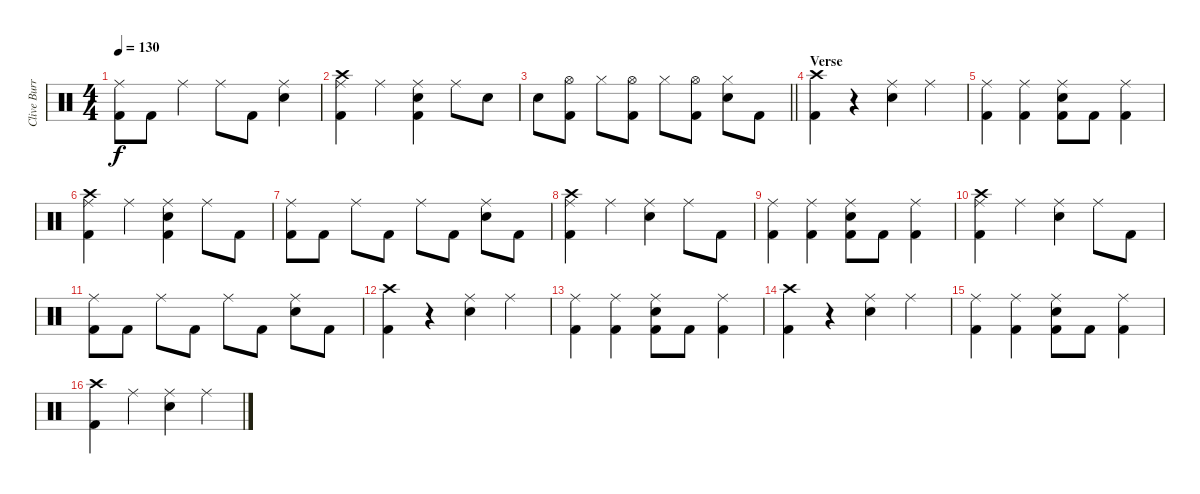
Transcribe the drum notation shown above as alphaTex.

\track ("Clive Burr" "Clive Burr") {instrument percussion}
\staff {score}
\articulation defaults
\ts (4 4)
\tempo 130
\clef neutral
\ks c
("Ride (middle)" "Kick (hit) 2").8{dy f} "Kick (hit) 2".8 "Ride (middle)".4 "Ride (middle)".8 "Kick (hit) 2".8 ("Snare (hit) 2" "Ride (middle)").4 |
("Crash high (hit)" "Ride (middle)" "Kick (hit) 2").4 "Ride (middle)".4 ("Snare (hit) 2" "Ride (middle)" "Kick (hit) 2").4 "Ride (middle)".8 "Snare (hit) 2".8 |
\barLineRight lightlight "Snare (hit) 2".8
("Hi-Hat (open)" "Kick (hit) 2").8 "Hi-Hat (closed)".8 ("Hi-Hat (open)" "Kick (hit) 2").8 "Hi-Hat (closed)".8 ("Hi-Hat (open)" "Kick (hit) 2").8 ("Snare (hit) 2" "Hi-Hat (closed)").8 "Kick (hit) 2".8 |
\section ("" "Verse")
("Crash high (hit)" "Kick (hit) 2").4 r.4 ("Snare (hit) 2" "Ride (middle)").4 "Ride (middle)".4 |
("Ride (middle)" "Kick (hit) 2").4 ("Ride (middle)" "Kick (hit) 2").4 ("Snare (hit) 2" "Ride (middle)" "Kick (hit) 2").8 "Kick (hit) 2".8 ("Ride (middle)" "Kick (hit) 2").4 |
("Crash high (hit)" "Ride (middle)" "Kick (hit) 2").4 "Ride (middle)".4 ("Snare (hit) 2" "Ride (middle)" "Kick (hit) 2").4 "Ride (middle)".8 "Kick (hit) 2".8 |
("Ride (middle)" "Kick (hit) 2").8 "Kick (hit) 2".8 "Ride (middle)".8 "Kick (hit) 2".8 "Ride (middle)".8 "Kick (hit) 2".8 ("Snare (hit) 2" "Ride (middle)").8 "Kick (hit) 2".8 |
("Crash high (hit)" "Ride (middle)" "Kick (hit) 2").4 "Ride (middle)".4 ("Snare (hit) 2" "Ride (middle)").4 "Ride (middle)".8 "Kick (hit) 2".8 |
("Ride (middle)" "Kick (hit) 2").4 ("Ride (middle)" "Kick (hit) 2").4 ("Snare (hit) 2" "Ride (middle)" "Kick (hit) 2").8 "Kick (hit) 2".8 ("Ride (middle)" "Kick (hit) 2").4 |
("Crash high (hit)" "Ride (middle)" "Kick (hit) 2").4 "Ride (middle)".4 ("Snare (hit) 2" "Ride (middle)").4 "Ride (middle)".8 "Kick (hit) 2".8 |
("Ride (middle)" "Kick (hit) 2").8 "Kick (hit) 2".8 "Ride (middle)".8 "Kick (hit) 2".8 "Ride (middle)".8 "Kick (hit) 2".8 ("Snare (hit) 2" "Ride (middle)").8 "Kick (hit) 2".8 |
("Crash high (hit)" "Kick (hit) 2").4 r.4 ("Snare (hit) 2" "Ride (middle)").4 "Ride (middle)".4 |
("Ride (middle)" "Kick (hit) 2").4 ("Ride (middle)" "Kick (hit) 2").4 ("Snare (hit) 2" "Ride (middle)" "Kick (hit) 2").8 "Kick (hit) 2".8 ("Ride (middle)" "Kick (hit) 2").4 |
("Crash high (hit)" "Kick (hit) 2").4 r.4 ("Snare (hit) 2" "Ride (middle)").4 "Ride (middle)".4 |
("Ride (middle)" "Kick (hit) 2").4 ("Ride (middle)" "Kick (hit) 2").4 ("Snare (hit) 2" "Ride (middle)" "Kick (hit) 2").8 "Kick (hit) 2".8 ("Ride (middle)" "Kick (hit) 2").4 |
("Crash high (hit)" "Kick (hit) 2").4 "Ride (middle)".4 ("Snare (hit) 2" "Ride (middle)").4 "Ride (middle)".4
